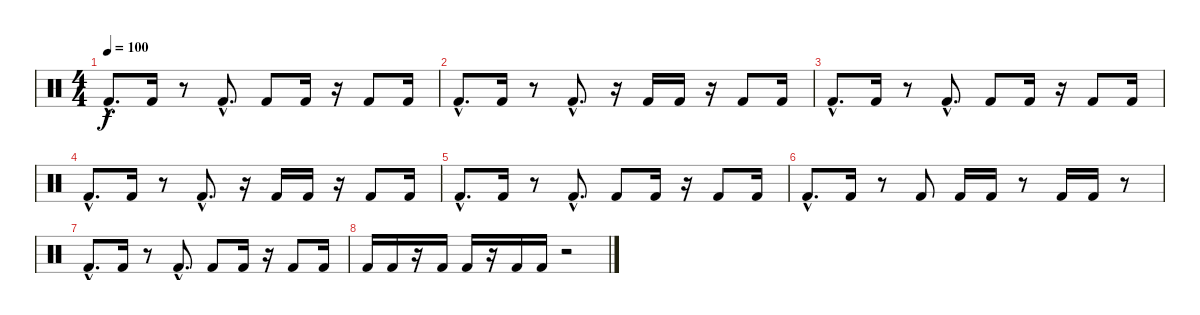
\track "" {instrument percussion}
\staff {score}
\articulation defaults
\ts (4 4)
\tempo 100
\clef neutral
\ks c "Kick (hit) 2"{hac}.8{d dy f} "Kick (hit) 2".16
r.8 "Kick (hit) 2"{hac}.8{d} "Kick (hit) 2".8 "Kick (hit) 2".16 r.16 "Kick (hit) 2".8 "Kick (hit) 2".16 |
"Kick (hit) 2"{hac}.8{d} "Kick (hit) 2".16 r.8 "Kick (hit) 2"{hac}.8{d} r.16 "Kick (hit) 2".16 "Kick (hit) 2".16 r.16 "Kick (hit) 2".8 "Kick (hit) 2".16 |
"Kick (hit) 2"{hac}.8{d} "Kick (hit) 2".16 r.8 "Kick (hit) 2"{hac}.8{d} "Kick (hit) 2".8 "Kick (hit) 2".16 r.16 "Kick (hit) 2".8 "Kick (hit) 2".16 |
"Kick (hit) 2"{hac}.8{d} "Kick (hit) 2".16 r.8 "Kick (hit) 2"{hac}.8{d} r.16 "Kick (hit) 2".16 "Kick (hit) 2".16 r.16 "Kick (hit) 2".8 "Kick (hit) 2".16 |
"Kick (hit) 2"{hac}.8{d} "Kick (hit) 2".16 r.8 "Kick (hit) 2"{hac}.8{d} "Kick (hit) 2".8 "Kick (hit) 2".16 r.16 "Kick (hit) 2".8 "Kick (hit) 2".16 |
"Kick (hit) 2"{hac}.8{d} "Kick (hit) 2".16 r.8 "Kick (hit) 2".8 "Kick (hit) 2".16 "Kick (hit) 2".16 r.8 "Kick (hit) 2".16 "Kick (hit) 2".16 r.8 |
"Kick (hit) 2"{hac}.8{d} "Kick (hit) 2".16 r.8 "Kick (hit) 2"{hac}.8{d} "Kick (hit) 2".8 "Kick (hit) 2".16 r.16 "Kick (hit) 2".8 "Kick (hit) 2".16 |
"Kick (hit) 2".16 "Kick (hit) 2".16 r.16 "Kick (hit) 2".16 "Kick (hit) 2".16 r.16 "Kick (hit) 2".16 "Kick (hit) 2".16 r.2
